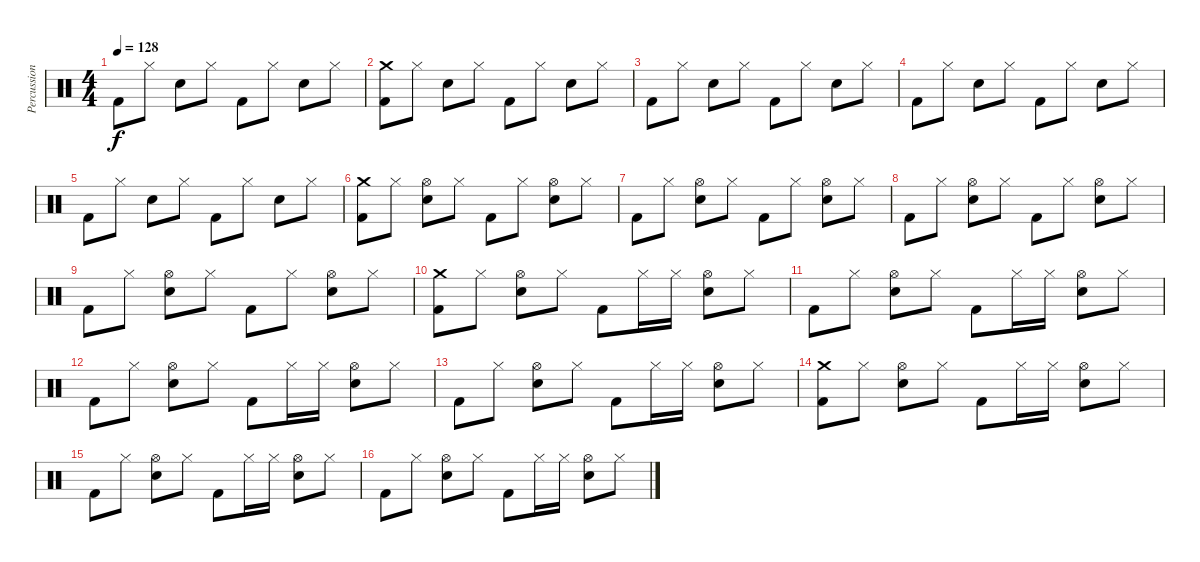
\track ("Percussion" "Percussion") {instrument percussion}
\staff {score}
\articulation defaults
\ts (4 4)
\tempo 128
\clef neutral
\ks c "Kick (hit) 2".8{dy f} "Hi-Hat (closed)".8 "Snare (hit) 2".8 "Hi-Hat (closed)".8 "Kick (hit) 2".8 "Hi-Hat (closed)".8 "Snare (hit) 2".8 "Hi-Hat (closed)".8
|
("Crash medium (hit)" "Kick (hit) 2").8 "Hi-Hat (closed)".8 "Snare (hit) 2".8 "Hi-Hat (closed)".8 "Kick (hit) 2".8 "Hi-Hat (closed)".8 "Snare (hit) 2".8 "Hi-Hat (closed)".8 |
"Kick (hit) 2".8 "Hi-Hat (closed)".8 "Snare (hit) 2".8 "Hi-Hat (closed)".8 "Kick (hit) 2".8 "Hi-Hat (closed)".8 "Snare (hit) 2".8 "Hi-Hat (closed)".8 |
"Kick (hit) 2".8 "Hi-Hat (closed)".8 "Snare (hit) 2".8 "Hi-Hat (closed)".8 "Kick (hit) 2".8 "Hi-Hat (closed)".8 "Snare (hit) 2".8 "Hi-Hat (closed)".8 |
"Kick (hit) 2".8 "Hi-Hat (closed)".8 "Snare (hit) 2".8 "Hi-Hat (closed)".8 "Kick (hit) 2".8 "Hi-Hat (closed)".8 "Snare (hit) 2".8 "Hi-Hat (closed)".8 |
("Crash medium (hit)" "Kick (hit) 2").8 "Hi-Hat (closed)".8 ("Hi-Hat (open)" "Snare (hit) 2").8 "Hi-Hat (closed)".8 "Kick (hit) 2".8 "Hi-Hat (closed)".8 ("Hi-Hat (open)" "Snare (hit) 2").8 "Hi-Hat (closed)".8 |
"Kick (hit) 2".8 "Hi-Hat (closed)".8 ("Hi-Hat (open)" "Snare (hit) 2").8 "Hi-Hat (closed)".8 "Kick (hit) 2".8 "Hi-Hat (closed)".8 ("Hi-Hat (open)" "Snare (hit) 2").8 "Hi-Hat (closed)".8 |
"Kick (hit) 2".8 "Hi-Hat (closed)".8 ("Hi-Hat (open)" "Snare (hit) 2").8 "Hi-Hat (closed)".8 "Kick (hit) 2".8 "Hi-Hat (closed)".8 ("Hi-Hat (open)" "Snare (hit) 2").8 "Hi-Hat (closed)".8 |
"Kick (hit) 2".8 "Hi-Hat (closed)".8 ("Hi-Hat (open)" "Snare (hit) 2").8 "Hi-Hat (closed)".8 "Kick (hit) 2".8 "Hi-Hat (closed)".8 ("Hi-Hat (open)" "Snare (hit) 2").8 "Hi-Hat (closed)".8 |
("Crash medium (hit)" "Kick (hit) 2").8 "Hi-Hat (closed)".8 ("Hi-Hat (open)" "Snare (hit) 2").8 "Hi-Hat (closed)".8 "Kick (hit) 2".8 "Hi-Hat (closed)".16 "Hi-Hat (closed)".16 ("Hi-Hat (open)" "Snare (hit) 2").8 "Hi-Hat (closed)".8 |
"Kick (hit) 2".8 "Hi-Hat (closed)".8 ("Hi-Hat (open)" "Snare (hit) 2").8 "Hi-Hat (closed)".8 "Kick (hit) 2".8 "Hi-Hat (closed)".16 "Hi-Hat (closed)".16 ("Hi-Hat (open)" "Snare (hit) 2").8 "Hi-Hat (closed)".8 |
"Kick (hit) 2".8 "Hi-Hat (closed)".8 ("Hi-Hat (open)" "Snare (hit) 2").8 "Hi-Hat (closed)".8 "Kick (hit) 2".8 "Hi-Hat (closed)".16 "Hi-Hat (closed)".16 ("Hi-Hat (open)" "Snare (hit) 2").8 "Hi-Hat (closed)".8 |
"Kick (hit) 2".8 "Hi-Hat (closed)".8 ("Hi-Hat (open)" "Snare (hit) 2").8 "Hi-Hat (closed)".8 "Kick (hit) 2".8 "Hi-Hat (closed)".16 "Hi-Hat (closed)".16 ("Hi-Hat (open)" "Snare (hit) 2").8 "Hi-Hat (closed)".8 |
("Crash medium (hit)" "Kick (hit) 2").8 "Hi-Hat (closed)".8 ("Hi-Hat (open)" "Snare (hit) 2").8 "Hi-Hat (closed)".8 "Kick (hit) 2".8 "Hi-Hat (closed)".16 "Hi-Hat (closed)".16 ("Hi-Hat (open)" "Snare (hit) 2").8 "Hi-Hat (closed)".8 |
"Kick (hit) 2".8 "Hi-Hat (closed)".8 ("Hi-Hat (open)" "Snare (hit) 2").8 "Hi-Hat (closed)".8 "Kick (hit) 2".8 "Hi-Hat (closed)".16 "Hi-Hat (closed)".16 ("Hi-Hat (open)" "Snare (hit) 2").8 "Hi-Hat (closed)".8 |
"Kick (hit) 2".8 "Hi-Hat (closed)".8 ("Hi-Hat (open)" "Snare (hit) 2").8 "Hi-Hat (closed)".8 "Kick (hit) 2".8 "Hi-Hat (closed)".16 "Hi-Hat (closed)".16 ("Hi-Hat (open)" "Snare (hit) 2").8 "Hi-Hat (closed)".8
